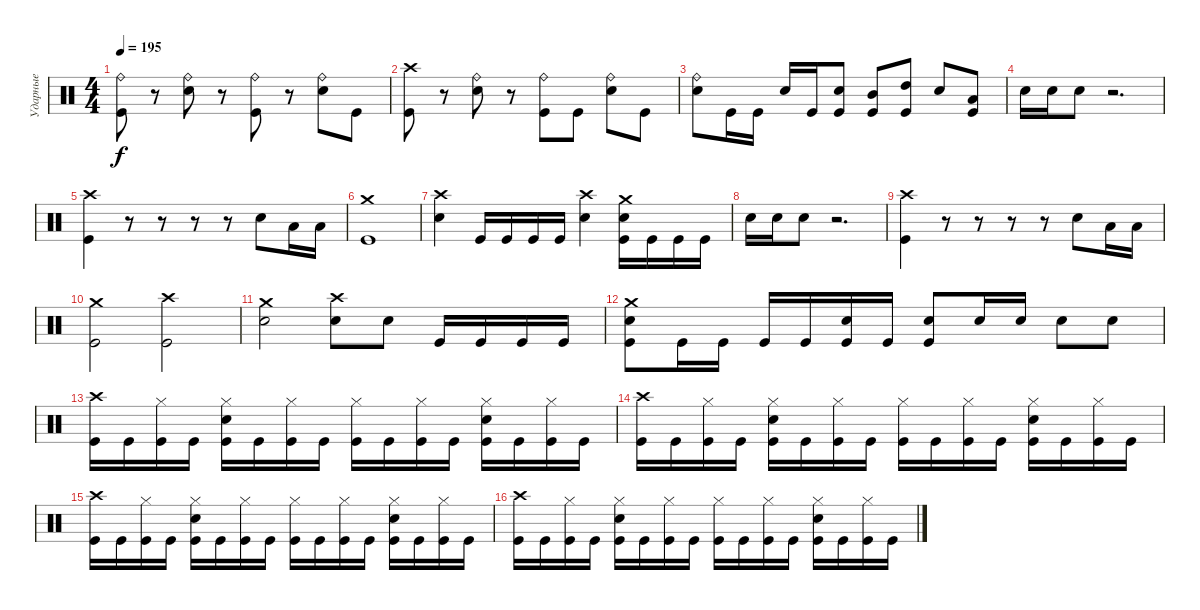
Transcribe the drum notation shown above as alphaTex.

\track ("Ударные" "Ударные") {instrument percussion}
\staff {score}
\articulation defaults
\ts (4 4)
\tempo 195
\clef neutral
\ks c
("Ride (bell)" "Kick (hit)").8{dy f} r.8 ("Ride (bell)" "Electric Snare (hit)").8 r.8 ("Ride (bell)" "Kick (hit)").8 r.8 ("Ride (bell)" "Electric Snare (hit)").8 "Kick (hit)".8 |
("Crash high (hit)" "Kick (hit)").8 r.8 ("Ride (bell)" "Electric Snare (hit)").8 r.8 ("Ride (bell)" "Kick (hit)").8 "Kick (hit)".8 ("Ride (bell)" "Electric Snare (hit)").8 "Kick (hit)".8 |
("Ride (bell)" "Electric Snare (hit)").8 "Kick (hit)".16 "Kick (hit)".16 "Electric Snare (hit)".16 "Kick (hit)".16 ("Electric Snare (hit)" "Kick (hit)").8 ("Mid Tom (hit)" "Kick (hit)").8 ("High Tom (hit)" "Kick (hit)").8 "Electric Snare (hit)".8 ("Low Tom (hit)" "Kick (hit)").8 |
"Electric Snare (hit)".16 "Electric Snare (hit)".16 "Electric Snare (hit)".8 r.2{d} |
("Crash high (hit)" "Kick (hit)").4 r.8 r.8 r.8 r.8 "Electric Snare (hit)".8 "Low Tom (hit)".16 "Low Tom (hit)".16 |
("Crash medium (hit)" "Kick (hit)").1 |
("Crash high (hit)" "Electric Snare (hit)").4 "Kick (hit)".16 "Kick (hit)".16 "Kick (hit)".16 "Kick (hit)".16 ("Crash high (hit)" "Electric Snare (hit)").4 ("Crash medium (hit)" "Electric Snare (hit)" "Kick (hit)").16 "Kick (hit)".16 "Kick (hit)".16 "Kick (hit)".16 |
"Electric Snare (hit)".16 "Electric Snare (hit)".16 "Electric Snare (hit)".8 r.2{d} |
("Crash high (hit)" "Kick (hit)").4 r.8 r.8 r.8 r.8 "Electric Snare (hit)".8 "Low Tom (hit)".16 "Low Tom (hit)".16 |
("Crash medium (hit)" "Kick (hit)").2 ("Crash high (hit)" "Kick (hit)").2 |
("Crash medium (hit)" "Electric Snare (hit)").2 ("Crash high (hit)" "Electric Snare (hit)").8 "Electric Snare (hit)".8 "Kick (hit)".16 "Kick (hit)".16 "Kick (hit)".16 "Kick (hit)".16 |
("Crash medium (hit)" "Electric Snare (hit)" "Kick (hit)").8 "Kick (hit)".16 "Kick (hit)".16 "Kick (hit)".16 "Kick (hit)".16 ("Electric Snare (hit)" "Kick (hit)").16 "Kick (hit)".16 ("Electric Snare (hit)" "Kick (hit)").8 "Electric Snare (hit)".16 "Electric Snare (hit)".16 "Electric Snare (hit)".8 "Electric Snare (hit)".8 |
("Crash high (hit)" "Kick (hit)").16 "Kick (hit)".16 ("Hi-Hat (closed)" "Kick (hit)").16 "Kick (hit)".16 ("Hi-Hat (closed)" "Electric Snare (hit)" "Kick (hit)").16 "Kick (hit)".16 ("Hi-Hat (closed)" "Kick (hit)").16 "Kick (hit)".16 ("Hi-Hat (closed)" "Kick (hit)").16 "Kick (hit)".16 ("Hi-Hat (closed)" "Kick (hit)").16 "Kick (hit)".16 ("Hi-Hat (closed)" "Electric Snare (hit)" "Kick (hit)").16 "Kick (hit)".16 ("Hi-Hat (closed)" "Kick (hit)").16 "Kick (hit)".16 |
("Crash high (hit)" "Kick (hit)").16 "Kick (hit)".16 ("Hi-Hat (closed)" "Kick (hit)").16 "Kick (hit)".16 ("Hi-Hat (closed)" "Electric Snare (hit)" "Kick (hit)").16 "Kick (hit)".16 ("Hi-Hat (closed)" "Kick (hit)").16 "Kick (hit)".16 ("Hi-Hat (closed)" "Kick (hit)").16 "Kick (hit)".16 ("Hi-Hat (closed)" "Kick (hit)").16 "Kick (hit)".16 ("Hi-Hat (closed)" "Electric Snare (hit)" "Kick (hit)").16 "Kick (hit)".16 ("Hi-Hat (closed)" "Kick (hit)").16 "Kick (hit)".16 |
("Crash high (hit)" "Kick (hit)").16 "Kick (hit)".16 ("Hi-Hat (closed)" "Kick (hit)").16 "Kick (hit)".16 ("Hi-Hat (closed)" "Electric Snare (hit)" "Kick (hit)").16 "Kick (hit)".16 ("Hi-Hat (closed)" "Kick (hit)").16 "Kick (hit)".16 ("Hi-Hat (closed)" "Kick (hit)").16 "Kick (hit)".16 ("Hi-Hat (closed)" "Kick (hit)").16 "Kick (hit)".16 ("Hi-Hat (closed)" "Electric Snare (hit)" "Kick (hit)").16 "Kick (hit)".16 ("Hi-Hat (closed)" "Kick (hit)").16 "Kick (hit)".16 |
("Crash high (hit)" "Kick (hit)").16 "Kick (hit)".16 ("Hi-Hat (closed)" "Kick (hit)").16 "Kick (hit)".16 ("Hi-Hat (closed)" "Electric Snare (hit)" "Kick (hit)").16 "Kick (hit)".16 ("Hi-Hat (closed)" "Kick (hit)").16 "Kick (hit)".16 ("Hi-Hat (closed)" "Kick (hit)").16 "Kick (hit)".16 ("Hi-Hat (closed)" "Kick (hit)").16 "Kick (hit)".16 ("Hi-Hat (closed)" "Electric Snare (hit)" "Kick (hit)").16 "Kick (hit)".16 ("Hi-Hat (closed)" "Kick (hit)").16 "Kick (hit)".16
